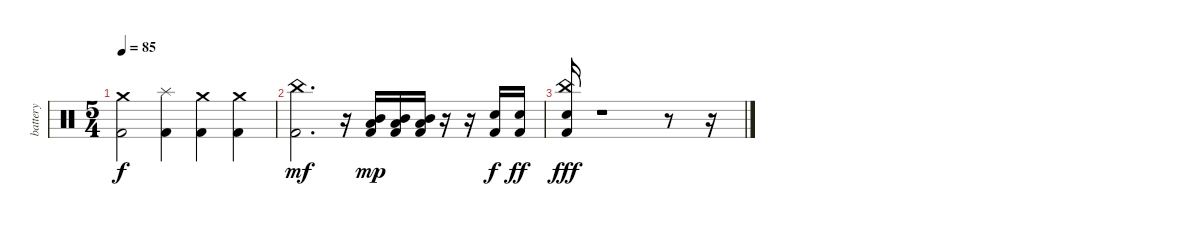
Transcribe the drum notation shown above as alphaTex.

\track ("battery" "battery") {instrument percussion}
\staff {score}
\articulation defaults
\ts (5 4)
\tempo 85
\clef neutral
\ks c
("Crash medium (hit)" "Kick (hit) 2").2{dy f} ("Splash (hit)" "Kick (hit) 2").4 ("Crash medium (hit)" "Kick (hit) 2").4 ("Crash medium (hit)" "Kick (hit) 2").4 |
("China (hit)" "Kick (hit) 2").2{d dy mf} r.16 ("Mid Tom (hit)" "Low Tom (hit)" "Kick (hit) 2").16{dy mp} ("Mid Tom (hit)" "Low Tom (hit)" "Kick (hit) 2").16 ("Mid Tom (hit)" "Low Tom (hit)" "Kick (hit) 2").16 r.16 r.16 ("Electric Snare (hit)" "Kick (hit) 2").16{dy f} ("Electric Snare (hit)" "Kick (hit) 2").16{dy ff} |
("Electric Snare (hit)" "China (hit)" "Kick (hit) 2").16{dy fff} r.1 r.8 r.16
